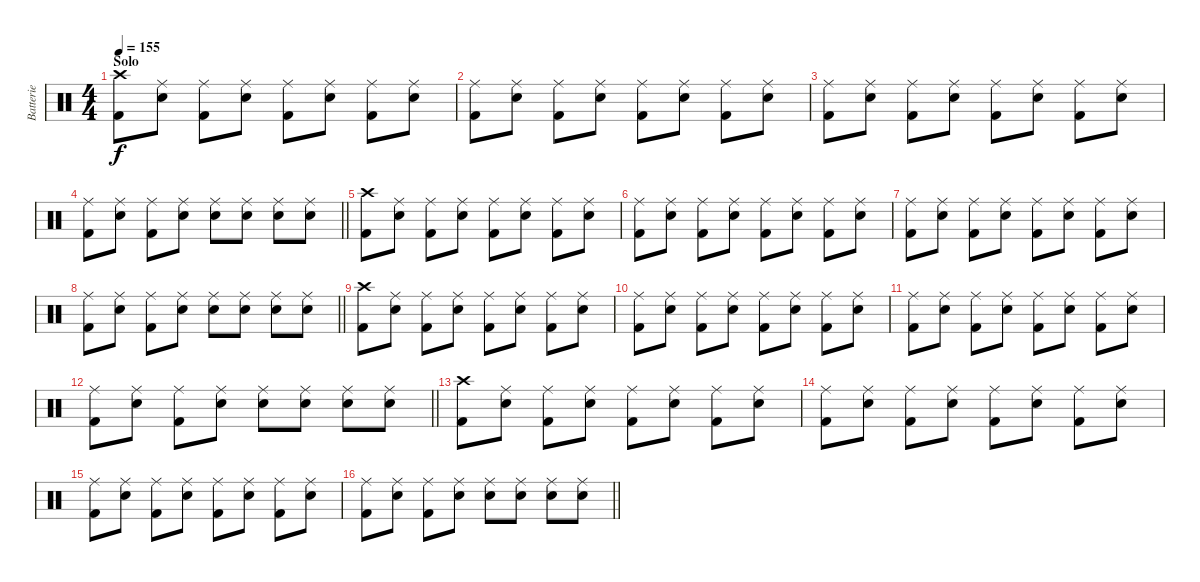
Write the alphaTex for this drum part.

\track ("Batterie" "Batterie") {instrument percussion}
\staff {score}
\articulation defaults
\ts (4 4)
\section ("" "Solo")
\tempo 155
\clef neutral
\ks c
("Crash high (hit)" "Kick (hit) 2").8{dy f} ("Ride (middle)" "Electric Snare (hit)").8 ("Ride (middle)" "Kick (hit) 2").8 ("Ride (middle)" "Electric Snare (hit)").8 ("Ride (middle)" "Kick (hit) 2").8 ("Ride (middle)" "Electric Snare (hit)").8 ("Ride (middle)" "Kick (hit) 2").8 ("Ride (middle)" "Electric Snare (hit)").8 |
("Ride (middle)" "Kick (hit) 2").8 ("Ride (middle)" "Electric Snare (hit)").8 ("Ride (middle)" "Kick (hit) 2").8 ("Ride (middle)" "Electric Snare (hit)").8 ("Ride (middle)" "Kick (hit) 2").8 ("Ride (middle)" "Electric Snare (hit)").8 ("Ride (middle)" "Kick (hit) 2").8 ("Ride (middle)" "Electric Snare (hit)").8 |
("Ride (middle)" "Kick (hit) 2").8 ("Ride (middle)" "Electric Snare (hit)").8 ("Ride (middle)" "Kick (hit) 2").8 ("Ride (middle)" "Electric Snare (hit)").8 ("Ride (middle)" "Kick (hit) 2").8 ("Ride (middle)" "Electric Snare (hit)").8 ("Ride (middle)" "Kick (hit) 2").8 ("Ride (middle)" "Electric Snare (hit)").8 |
\barLineRight lightlight
("Ride (middle)" "Kick (hit) 2").8 ("Ride (middle)" "Electric Snare (hit)").8 ("Ride (middle)" "Kick (hit) 2").8 ("Ride (middle)" "Electric Snare (hit)").8 ("Ride (middle)" "Electric Snare (hit)").8 ("Ride (middle)" "Electric Snare (hit)").8 ("Ride (middle)" "Electric Snare (hit)").8 ("Ride (middle)" "Electric Snare (hit)").8 |
("Crash high (hit)" "Kick (hit) 2").8 ("Ride (middle)" "Electric Snare (hit)").8 ("Ride (middle)" "Kick (hit) 2").8 ("Ride (middle)" "Electric Snare (hit)").8 ("Ride (middle)" "Kick (hit) 2").8 ("Ride (middle)" "Electric Snare (hit)").8 ("Ride (middle)" "Kick (hit) 2").8 ("Ride (middle)" "Electric Snare (hit)").8 |
("Ride (middle)" "Kick (hit) 2").8 ("Ride (middle)" "Electric Snare (hit)").8 ("Ride (middle)" "Kick (hit) 2").8 ("Ride (middle)" "Electric Snare (hit)").8 ("Ride (middle)" "Kick (hit) 2").8 ("Ride (middle)" "Electric Snare (hit)").8 ("Ride (middle)" "Kick (hit) 2").8 ("Ride (middle)" "Electric Snare (hit)").8 |
("Ride (middle)" "Kick (hit) 2").8 ("Ride (middle)" "Electric Snare (hit)").8 ("Ride (middle)" "Kick (hit) 2").8 ("Ride (middle)" "Electric Snare (hit)").8 ("Ride (middle)" "Kick (hit) 2").8 ("Ride (middle)" "Electric Snare (hit)").8 ("Ride (middle)" "Kick (hit) 2").8 ("Ride (middle)" "Electric Snare (hit)").8 |
\barLineRight lightlight
("Ride (middle)" "Kick (hit) 2").8 ("Ride (middle)" "Electric Snare (hit)").8 ("Ride (middle)" "Kick (hit) 2").8 ("Ride (middle)" "Electric Snare (hit)").8 ("Ride (middle)" "Electric Snare (hit)").8 ("Ride (middle)" "Electric Snare (hit)").8 ("Ride (middle)" "Electric Snare (hit)").8 ("Ride (middle)" "Electric Snare (hit)").8 |
("Crash high (hit)" "Kick (hit) 2").8 ("Ride (middle)" "Electric Snare (hit)").8 ("Ride (middle)" "Kick (hit) 2").8 ("Ride (middle)" "Electric Snare (hit)").8 ("Ride (middle)" "Kick (hit) 2").8 ("Ride (middle)" "Electric Snare (hit)").8 ("Ride (middle)" "Kick (hit) 2").8 ("Ride (middle)" "Electric Snare (hit)").8 |
("Ride (middle)" "Kick (hit) 2").8 ("Ride (middle)" "Electric Snare (hit)").8 ("Ride (middle)" "Kick (hit) 2").8 ("Ride (middle)" "Electric Snare (hit)").8 ("Ride (middle)" "Kick (hit) 2").8 ("Ride (middle)" "Electric Snare (hit)").8 ("Ride (middle)" "Kick (hit) 2").8 ("Ride (middle)" "Electric Snare (hit)").8 |
("Ride (middle)" "Kick (hit) 2").8 ("Ride (middle)" "Electric Snare (hit)").8 ("Ride (middle)" "Kick (hit) 2").8 ("Ride (middle)" "Electric Snare (hit)").8 ("Ride (middle)" "Kick (hit) 2").8 ("Ride (middle)" "Electric Snare (hit)").8 ("Ride (middle)" "Kick (hit) 2").8 ("Ride (middle)" "Electric Snare (hit)").8 |
\barLineRight lightlight
("Ride (middle)" "Kick (hit) 2").8 ("Ride (middle)" "Electric Snare (hit)").8 ("Ride (middle)" "Kick (hit) 2").8 ("Ride (middle)" "Electric Snare (hit)").8 ("Ride (middle)" "Electric Snare (hit)").8 ("Ride (middle)" "Electric Snare (hit)").8 ("Ride (middle)" "Electric Snare (hit)").8 ("Ride (middle)" "Electric Snare (hit)").8 |
("Crash high (hit)" "Kick (hit) 2").8 ("Ride (middle)" "Electric Snare (hit)").8 ("Ride (middle)" "Kick (hit) 2").8 ("Ride (middle)" "Electric Snare (hit)").8 ("Ride (middle)" "Kick (hit) 2").8 ("Ride (middle)" "Electric Snare (hit)").8 ("Ride (middle)" "Kick (hit) 2").8 ("Ride (middle)" "Electric Snare (hit)").8 |
("Ride (middle)" "Kick (hit) 2").8 ("Ride (middle)" "Electric Snare (hit)").8 ("Ride (middle)" "Kick (hit) 2").8 ("Ride (middle)" "Electric Snare (hit)").8 ("Ride (middle)" "Kick (hit) 2").8 ("Ride (middle)" "Electric Snare (hit)").8 ("Ride (middle)" "Kick (hit) 2").8 ("Ride (middle)" "Electric Snare (hit)").8 |
("Ride (middle)" "Kick (hit) 2").8 ("Ride (middle)" "Electric Snare (hit)").8 ("Ride (middle)" "Kick (hit) 2").8 ("Ride (middle)" "Electric Snare (hit)").8 ("Ride (middle)" "Kick (hit) 2").8 ("Ride (middle)" "Electric Snare (hit)").8 ("Ride (middle)" "Kick (hit) 2").8 ("Ride (middle)" "Electric Snare (hit)").8 |
\barLineRight lightlight
("Ride (middle)" "Kick (hit) 2").8 ("Ride (middle)" "Electric Snare (hit)").8 ("Ride (middle)" "Kick (hit) 2").8 ("Ride (middle)" "Electric Snare (hit)").8 ("Ride (middle)" "Electric Snare (hit)").8 ("Ride (middle)" "Electric Snare (hit)").8 ("Ride (middle)" "Electric Snare (hit)").8 ("Ride (middle)" "Electric Snare (hit)").8
